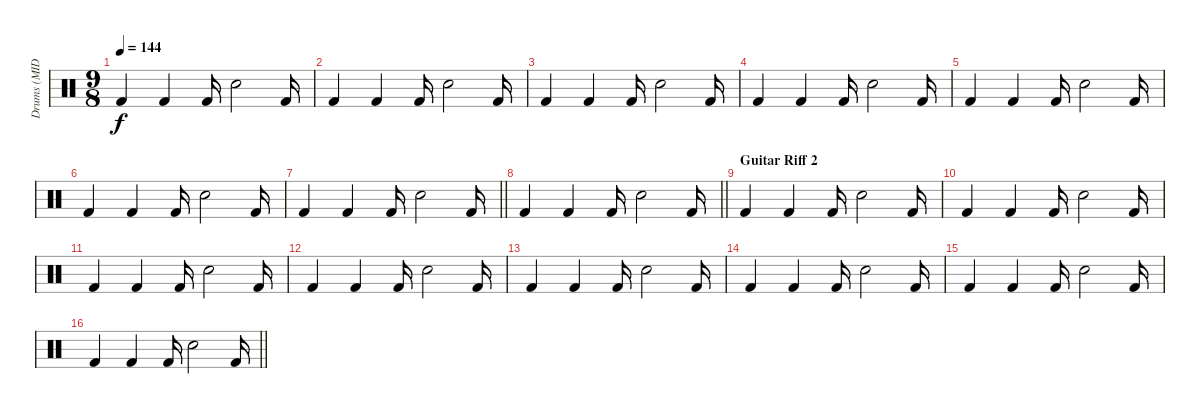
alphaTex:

\track ("Drums (MIDI!)" "Drums (MID") {instrument percussion}
\staff {score}
\articulation defaults
\ts (9 8)
\tempo 144
\clef neutral
\ks c "Kick (hit) 2".4{dy f} "Kick (hit) 2".4 "Kick (hit) 2".16 "Electric Snare (hit)".2 "Kick (hit) 2".16
|
"Kick (hit) 2".4 "Kick (hit) 2".4 "Kick (hit) 2".16 "Electric Snare (hit)".2 "Kick (hit) 2".16 |
"Kick (hit) 2".4 "Kick (hit) 2".4 "Kick (hit) 2".16 "Electric Snare (hit)".2 "Kick (hit) 2".16 |
"Kick (hit) 2".4 "Kick (hit) 2".4 "Kick (hit) 2".16 "Electric Snare (hit)".2 "Kick (hit) 2".16 |
"Kick (hit) 2".4 "Kick (hit) 2".4 "Kick (hit) 2".16 "Electric Snare (hit)".2 "Kick (hit) 2".16 |
"Kick (hit) 2".4 "Kick (hit) 2".4 "Kick (hit) 2".16 "Electric Snare (hit)".2 "Kick (hit) 2".16 |
\barLineRight lightlight "Kick (hit) 2".4 "Kick (hit) 2".4 "Kick (hit) 2".16 "Electric Snare (hit)".2 "Kick (hit) 2".16
|
\barLineRight lightlight "Kick (hit) 2".4 "Kick (hit) 2".4 "Kick (hit) 2".16 "Electric Snare (hit)".2 "Kick (hit) 2".16
|
\section ("" "Guitar Riff 2")
"Kick (hit) 2".4 "Kick (hit) 2".4 "Kick (hit) 2".16 "Electric Snare (hit)".2 "Kick (hit) 2".16 |
"Kick (hit) 2".4 "Kick (hit) 2".4 "Kick (hit) 2".16 "Electric Snare (hit)".2 "Kick (hit) 2".16 |
"Kick (hit) 2".4 "Kick (hit) 2".4 "Kick (hit) 2".16 "Electric Snare (hit)".2 "Kick (hit) 2".16 |
"Kick (hit) 2".4 "Kick (hit) 2".4 "Kick (hit) 2".16 "Electric Snare (hit)".2 "Kick (hit) 2".16 |
"Kick (hit) 2".4 "Kick (hit) 2".4 "Kick (hit) 2".16 "Electric Snare (hit)".2 "Kick (hit) 2".16 |
"Kick (hit) 2".4 "Kick (hit) 2".4 "Kick (hit) 2".16 "Electric Snare (hit)".2 "Kick (hit) 2".16 |
"Kick (hit) 2".4 "Kick (hit) 2".4 "Kick (hit) 2".16 "Electric Snare (hit)".2 "Kick (hit) 2".16 |
\barLineRight lightlight "Kick (hit) 2".4 "Kick (hit) 2".4 "Kick (hit) 2".16 "Electric Snare (hit)".2 "Kick (hit) 2".16
